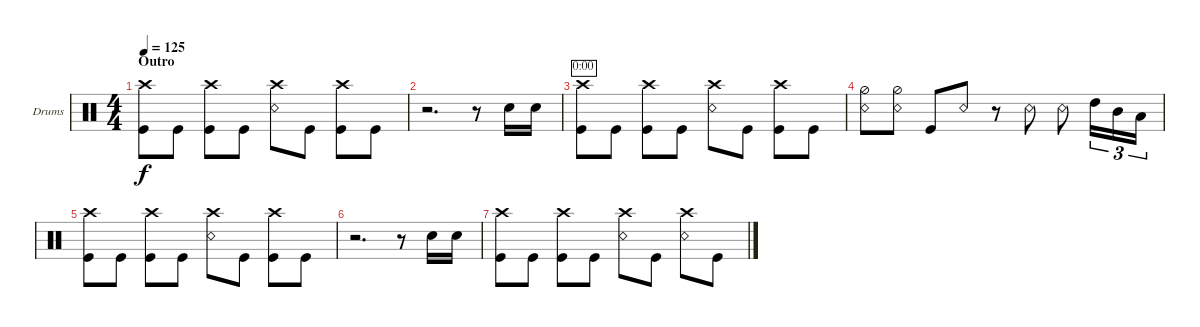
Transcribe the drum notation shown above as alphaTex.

\defaultSystemsLayout 4
\bracketExtendMode groupsimilarinstruments
\firstSystemTrackNameOrientation horizontal
\otherSystemsTrackNameOrientation horizontal
\track ("Drumkit" "Drums") {instrument percussion}
\staff {score}
\articulation defaults
\ts (4 4)
\section ("" "Outro")
\tempo 125
\clef neutral
\scale
0.333333
\ks c
("Kick (hit)" "Crash high (hit)").8{dy f} "Kick (hit)".8 ("Kick (hit)" "Crash high (hit)").8 "Kick (hit)".8 ("Snare (rim shot)" "Crash high (hit)").8 "Kick (hit)".8 ("Kick (hit)" "Crash high (hit)").8 "Kick (hit)".8 |
\scale
0.333333 r.2{d} r.8 "Snare (hit) 2".16 "Snare (hit) 2".16 |
\scale
0.333333 ("Kick (hit)" "Crash high (hit)").8{timer} "Kick (hit)".8 ("Kick (hit)" "Crash high (hit)").8 "Kick (hit)".8 ("Snare (rim shot)" "Crash high (hit)").8 "Kick (hit)".8 ("Kick (hit)" "Crash high (hit)").8 "Kick (hit)".8 |
\scale
0.333333 ("Snare (rim shot)" "Hi-Hat (half)").8 ("Snare (rim shot)" "Hi-Hat (half)").8 "Kick (hit)".8 "Snare (rim shot)".8 r.8 "Snare (rim shot)".8 "Snare (rim shot)".8 "High Tom (hit)".16{tu (3 2)} "Mid Tom (hit)".16{tu (3 2)} "Low Tom (hit)".16{tu (3 2)} |
\scale
0.333333 ("Kick (hit)" "Crash high (hit)").8 "Kick (hit)".8 ("Kick (hit)" "Crash high (hit)").8 "Kick (hit)".8 ("Snare (rim shot)" "Crash high (hit)").8 "Kick (hit)".8 ("Kick (hit)" "Crash high (hit)").8 "Kick (hit)".8 |
\scale
0.333333 r.2{d} r.8 "Snare (hit) 2".16 "Snare (hit) 2".16 |
\scale
0.333333 ("Kick (hit)" "Crash high (hit)").8 "Kick (hit)".8 ("Kick (hit)" "Crash high (hit)").8 "Kick (hit)".8 ("Snare (rim shot)" "Crash high (hit)").8 "Kick (hit)".8 ("Crash high (hit)" "Snare (rim shot)").8 "Kick (hit)".8 |
\scale
0.333333
